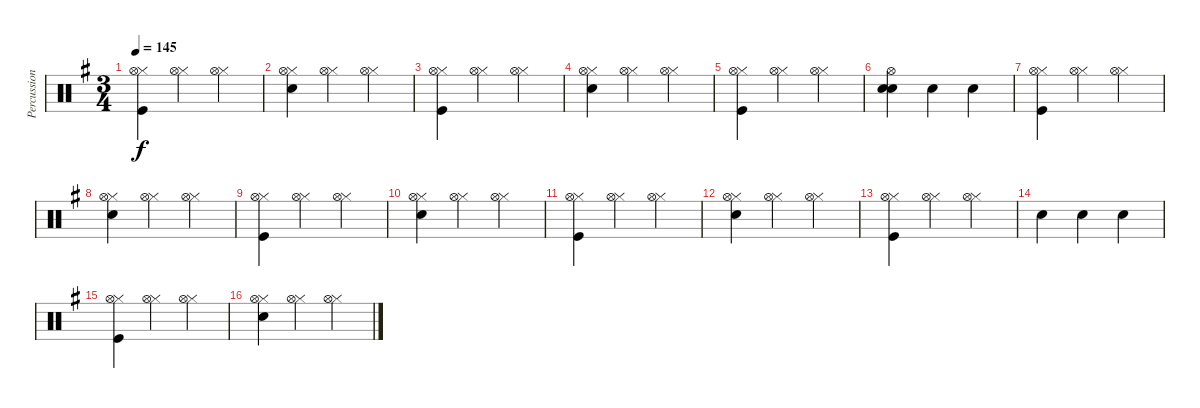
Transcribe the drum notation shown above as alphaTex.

\track ("Percussioni" "Percussion") {instrument percussion}
\staff {score}
\articulation defaults
\ts (3 4)
\tempo 145
\clef neutral
\ks g
("Hi-Hat (closed)" "Kick (hit)" "Hi-Hat (open)").4{dy f} ("Hi-Hat (closed)" "Hi-Hat (open)").4 ("Hi-Hat (closed)" "Hi-Hat (open)").4 |
("Hi-Hat (closed)" "Snare (hit) 2" "Hi-Hat (open)").4 ("Hi-Hat (closed)" "Hi-Hat (open)").4 ("Hi-Hat (closed)" "Hi-Hat (open)").4 |
("Hi-Hat (closed)" "Kick (hit)" "Hi-Hat (open)").4 ("Hi-Hat (closed)" "Hi-Hat (open)").4 ("Hi-Hat (closed)" "Hi-Hat (open)").4 |
("Hi-Hat (closed)" "Snare (hit) 2" "Hi-Hat (open)").4 ("Hi-Hat (closed)" "Hi-Hat (open)").4 ("Hi-Hat (closed)" "Hi-Hat (open)").4 |
("Hi-Hat (closed)" "Kick (hit)" "Hi-Hat (open)").4 ("Hi-Hat (closed)" "Hi-Hat (open)").4 ("Hi-Hat (closed)" "Hi-Hat (open)").4 |
("Electric Snare (hit)" "Snare (hit) 2" "Hi-Hat (open)").4 "Electric Snare (hit)".4 "Electric Snare (hit)".4 |
("Hi-Hat (closed)" "Kick (hit)" "Hi-Hat (open)").4 ("Hi-Hat (closed)" "Hi-Hat (open)").4 ("Hi-Hat (closed)" "Hi-Hat (open)").4 |
("Hi-Hat (closed)" "Snare (hit) 2" "Hi-Hat (open)").4 ("Hi-Hat (closed)" "Hi-Hat (open)").4 ("Hi-Hat (closed)" "Hi-Hat (open)").4 |
("Hi-Hat (closed)" "Kick (hit)" "Hi-Hat (open)").4 ("Hi-Hat (closed)" "Hi-Hat (open)").4 ("Hi-Hat (closed)" "Hi-Hat (open)").4 |
("Hi-Hat (closed)" "Snare (hit) 2" "Hi-Hat (open)").4 ("Hi-Hat (closed)" "Hi-Hat (open)").4 ("Hi-Hat (closed)" "Hi-Hat (open)").4 |
("Hi-Hat (closed)" "Kick (hit)" "Hi-Hat (open)").4 ("Hi-Hat (closed)" "Hi-Hat (open)").4 ("Hi-Hat (closed)" "Hi-Hat (open)").4 |
("Hi-Hat (closed)" "Snare (hit) 2" "Hi-Hat (open)").4 ("Hi-Hat (closed)" "Hi-Hat (open)").4 ("Hi-Hat (closed)" "Hi-Hat (open)").4 |
("Hi-Hat (closed)" "Kick (hit)" "Hi-Hat (open)").4 ("Hi-Hat (closed)" "Hi-Hat (open)").4 ("Hi-Hat (closed)" "Hi-Hat (open)").4 |
"Electric Snare (hit)".4 "Electric Snare (hit)".4 "Electric Snare (hit)".4 |
("Hi-Hat (closed)" "Kick (hit)" "Hi-Hat (open)").4 ("Hi-Hat (closed)" "Hi-Hat (open)").4 ("Hi-Hat (closed)" "Hi-Hat (open)").4 |
("Hi-Hat (closed)" "Snare (hit) 2" "Hi-Hat (open)").4 ("Hi-Hat (closed)" "Hi-Hat (open)").4 ("Hi-Hat (closed)" "Hi-Hat (open)").4
